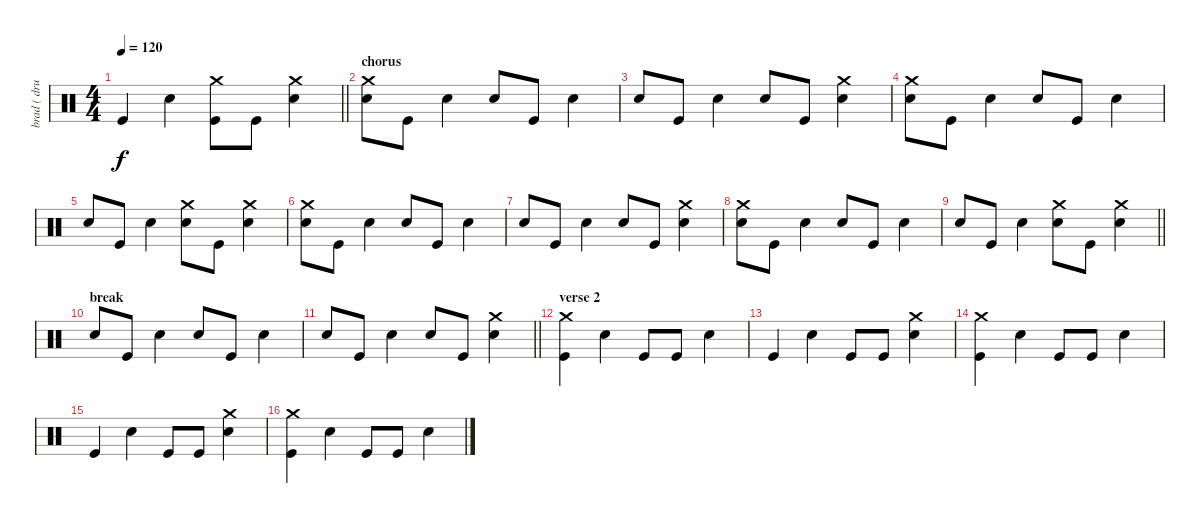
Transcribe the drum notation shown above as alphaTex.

\track ("brad ( drums)" "brad ( dru") {instrument percussion}
\staff {score}
\articulation defaults
\ts (4 4)
\tempo 120
\clef neutral
\barLineRight lightlight
\ks c "Kick (hit)".4{dy f} "Electric Snare (hit)".4
("Kick (hit)" "Crash medium (hit)").8 "Kick (hit)".8 ("Electric Snare (hit)" "Crash medium (hit)").4 |
\section ("" "chorus")
("Electric Snare (hit)" "Crash medium (hit)").8 "Kick (hit)".8 "Electric Snare (hit)".4 "Electric Snare (hit)".8 "Kick (hit)".8 "Electric Snare (hit)".4 |
"Electric Snare (hit)".8 "Kick (hit)".8 "Electric Snare (hit)".4 "Electric Snare (hit)".8 "Kick (hit)".8 ("Electric Snare (hit)" "Crash medium (hit)").4 |
("Electric Snare (hit)" "Crash medium (hit)").8 "Kick (hit)".8 "Electric Snare (hit)".4 "Electric Snare (hit)".8 "Kick (hit)".8 "Electric Snare (hit)".4 |
"Electric Snare (hit)".8 "Kick (hit)".8 "Electric Snare (hit)".4 ("Electric Snare (hit)" "Crash medium (hit)").8 "Kick (hit)".8 ("Electric Snare (hit)" "Crash medium (hit)").4 |
("Electric Snare (hit)" "Crash medium (hit)").8 "Kick (hit)".8 "Electric Snare (hit)".4 "Electric Snare (hit)".8 "Kick (hit)".8 "Electric Snare (hit)".4 |
"Electric Snare (hit)".8 "Kick (hit)".8 "Electric Snare (hit)".4 "Electric Snare (hit)".8 "Kick (hit)".8 ("Electric Snare (hit)" "Crash medium (hit)").4 |
("Electric Snare (hit)" "Crash medium (hit)").8 "Kick (hit)".8 "Electric Snare (hit)".4 "Electric Snare (hit)".8 "Kick (hit)".8 "Electric Snare (hit)".4 |
\barLineRight lightlight "Electric Snare (hit)".8 "Kick (hit)".8 "Electric Snare (hit)".4
("Electric Snare (hit)" "Crash medium (hit)").8 "Kick (hit)".8 ("Electric Snare (hit)" "Crash medium (hit)").4 |
\section ("" "break")
"Electric Snare (hit)".8 "Kick (hit)".8 "Electric Snare (hit)".4 "Electric Snare (hit)".8 "Kick (hit)".8 "Electric Snare (hit)".4 |
\barLineRight lightlight "Electric Snare (hit)".8 "Kick (hit)".8 "Electric Snare (hit)".4 "Electric Snare (hit)".8 "Kick (hit)".8
("Electric Snare (hit)" "Crash medium (hit)").4 |
\section ("" "verse 2")
("Kick (hit)" "Crash medium (hit)").4 "Electric Snare (hit)".4 "Kick (hit)".8 "Kick (hit)".8 "Electric Snare (hit)".4 |
"Kick (hit)".4 "Electric Snare (hit)".4 "Kick (hit)".8 "Kick (hit)".8 ("Electric Snare (hit)" "Crash medium (hit)").4 |
("Kick (hit)" "Crash medium (hit)").4 "Electric Snare (hit)".4 "Kick (hit)".8 "Kick (hit)".8 "Electric Snare (hit)".4 |
"Kick (hit)".4 "Electric Snare (hit)".4 "Kick (hit)".8 "Kick (hit)".8 ("Electric Snare (hit)" "Crash medium (hit)").4 |
("Kick (hit)" "Crash medium (hit)").4 "Electric Snare (hit)".4 "Kick (hit)".8 "Kick (hit)".8 "Electric Snare (hit)".4
